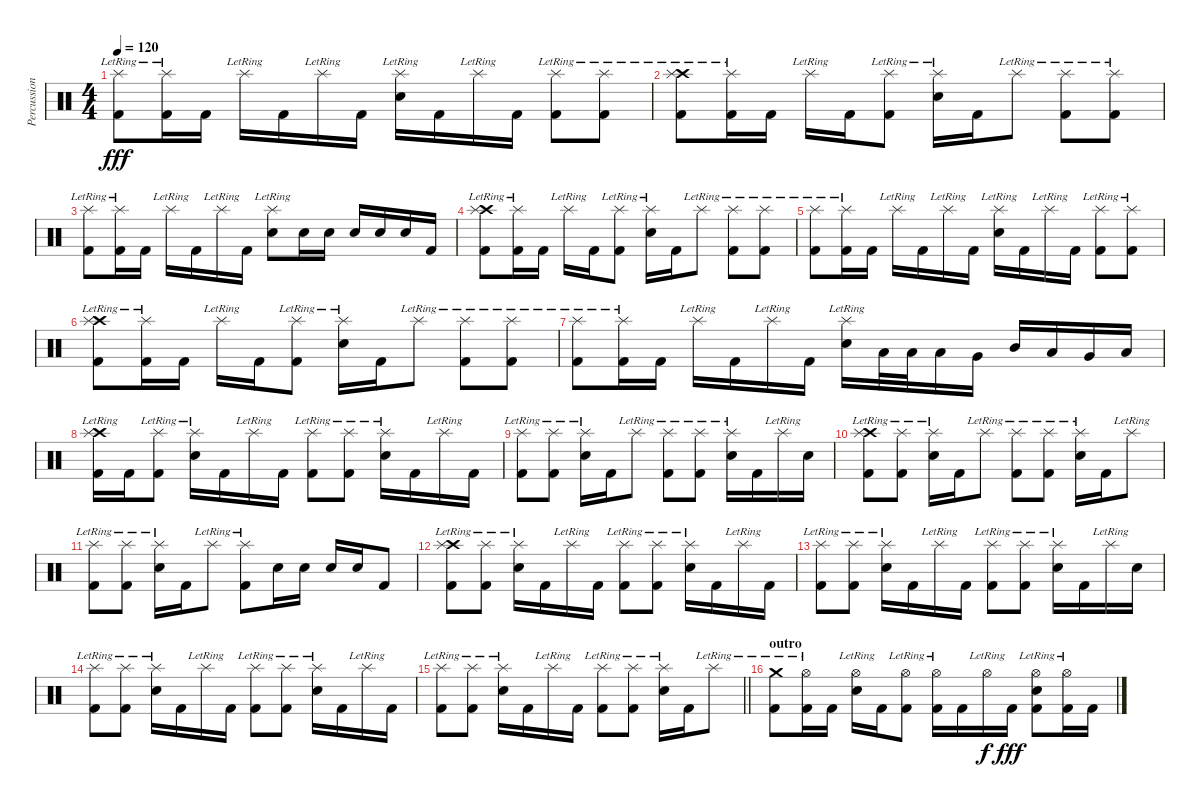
\track ("Percussions" "Percussion") {instrument percussion}
\staff {score}
\articulation defaults
\ts (4 4)
\tempo 120
\clef neutral
\ks c
("Splash (hit)"{lr} "Kick (hit) 2").8{dy fff} ("Splash (hit)"{lr} "Kick (hit) 2").16 "Kick (hit) 2".16 "Splash (hit)"{lr}.16 "Kick (hit) 2".16 "Splash (hit)"{lr}.16 "Kick (hit) 2".16 ("Splash (hit)"{lr} "Electric Snare (hit)").16 "Kick (hit) 2".16 "Splash (hit)"{lr}.16 "Kick (hit) 2".16 ("Splash (hit)"{lr} "Kick (hit) 2").8 ("Splash (hit)"{lr} "Kick (hit) 2").8 |
("Crash high (hit)"{lr} "Splash (hit)"{lr} "Kick (hit) 2").8 ("Splash (hit)"{lr} "Kick (hit) 2").16 "Kick (hit) 2".16 "Splash (hit)"{lr}.16 "Kick (hit) 2".16 ("Splash (hit)"{lr} "Kick (hit) 2").8 ("Splash (hit)"{lr} "Electric Snare (hit)").16 "Kick (hit) 2".16 "Splash (hit)"{lr}.8 ("Splash (hit)"{lr} "Kick (hit) 2").8 ("Splash (hit)"{lr} "Kick (hit) 2").8 |
("Splash (hit)"{lr} "Kick (hit) 2").8 ("Splash (hit)"{lr} "Kick (hit) 2").16 "Kick (hit) 2".16 "Splash (hit)"{lr}.16 "Kick (hit) 2".16 "Splash (hit)"{lr}.16 "Kick (hit) 2".16 ("Splash (hit)"{lr} "Electric Snare (hit)").8 "Electric Snare (hit)".16 "Electric Snare (hit)".16 "Electric Snare (hit)".16 "Electric Snare (hit)".16 "Electric Snare (hit)".16 "Kick (hit) 2".16 |
("Crash high (hit)"{lr} "Splash (hit)"{lr} "Kick (hit) 2").8 ("Splash (hit)"{lr} "Kick (hit) 2").16 "Kick (hit) 2".16 "Splash (hit)"{lr}.16 "Kick (hit) 2".16 ("Splash (hit)"{lr} "Kick (hit) 2").8 ("Splash (hit)"{lr} "Electric Snare (hit)").16 "Kick (hit) 2".16 "Splash (hit)"{lr}.8 ("Splash (hit)"{lr} "Kick (hit) 2").8 ("Splash (hit)"{lr} "Kick (hit) 2").8 |
("Splash (hit)"{lr} "Kick (hit) 2").8 ("Splash (hit)"{lr} "Kick (hit) 2").16 "Kick (hit) 2".16 "Splash (hit)"{lr}.16 "Kick (hit) 2".16 "Splash (hit)"{lr}.16 "Kick (hit) 2".16 ("Splash (hit)"{lr} "Electric Snare (hit)").16 "Kick (hit) 2".16 "Splash (hit)"{lr}.16 "Kick (hit) 2".16 ("Splash (hit)"{lr} "Kick (hit) 2").8 ("Splash (hit)"{lr} "Kick (hit) 2").8 |
("Crash high (hit)"{lr} "Splash (hit)"{lr} "Kick (hit) 2").8 ("Splash (hit)"{lr} "Kick (hit) 2").16 "Kick (hit) 2".16 "Splash (hit)"{lr}.16 "Kick (hit) 2".16 ("Splash (hit)"{lr} "Kick (hit) 2").8 ("Splash (hit)"{lr} "Electric Snare (hit)").16 "Kick (hit) 2".16 "Splash (hit)"{lr}.8 ("Splash (hit)"{lr} "Kick (hit) 2").8 ("Splash (hit)"{lr} "Kick (hit) 2").8 |
("Splash (hit)"{lr} "Kick (hit) 2").8 ("Splash (hit)"{lr} "Kick (hit) 2").16 "Kick (hit) 2".16 "Splash (hit)"{lr}.16 "Kick (hit) 2".16 "Splash (hit)"{lr}.16 "Kick (hit) 2".16 ("Splash (hit)"{lr} "Electric Snare (hit)").16 "Low Tom (hit)".32 "Low Tom (hit)".32 "Low Tom (hit)".16 "Very Low Tom (hit)".16 "Mid Tom (hit)".16 "Low Tom (hit)".16 "Very Low Tom (hit)".16 "Low Floor Tom (hit)".16 |
("Crash high (hit)"{lr} "Splash (hit)"{lr} "Kick (hit) 2").16 "Kick (hit) 2".16 ("Splash (hit)"{lr} "Kick (hit) 2").8 ("Splash (hit)"{lr} "Electric Snare (hit)").16 "Kick (hit) 2".16 "Splash (hit)"{lr}.16 "Kick (hit) 2".16 ("Splash (hit)"{lr} "Kick (hit) 2").8 ("Splash (hit)"{lr} "Kick (hit) 2").8 ("Splash (hit)"{lr} "Electric Snare (hit)").16 "Kick (hit) 2".16 "Splash (hit)"{lr}.16 "Kick (hit) 2".16 |
("Splash (hit)"{lr} "Kick (hit) 2").8 ("Splash (hit)"{lr} "Kick (hit) 2").8 ("Splash (hit)"{lr} "Electric Snare (hit)").16 "Kick (hit) 2".16 "Splash (hit)"{lr}.8 ("Splash (hit)"{lr} "Kick (hit) 2").8 ("Splash (hit)"{lr} "Kick (hit) 2").8 ("Splash (hit)"{lr} "Electric Snare (hit)").16 "Kick (hit) 2".16 "Splash (hit)"{lr}.16 "Electric Snare (hit)".16 |
("Crash high (hit)"{lr} "Splash (hit)"{lr} "Kick (hit) 2").8 ("Splash (hit)"{lr} "Kick (hit) 2").8 ("Splash (hit)"{lr} "Electric Snare (hit)").16 "Kick (hit) 2".16 "Splash (hit)"{lr}.8 ("Splash (hit)"{lr} "Kick (hit) 2").8 ("Splash (hit)"{lr} "Kick (hit) 2").8 ("Splash (hit)"{lr} "Electric Snare (hit)").16 "Kick (hit) 2".16 "Splash (hit)"{lr}.8 |
("Splash (hit)"{lr} "Kick (hit) 2").8 ("Splash (hit)"{lr} "Kick (hit) 2").8 ("Splash (hit)"{lr} "Electric Snare (hit)").16 "Kick (hit) 2".16 "Splash (hit)"{lr}.8 ("Splash (hit)"{lr} "Kick (hit) 2").8 "Electric Snare (hit)".16 "Electric Snare (hit)".16 "Electric Snare (hit)".16 "Electric Snare (hit)".16 "Kick (hit) 2".8 |
("Crash high (hit)"{lr} "Splash (hit)"{lr} "Kick (hit) 2").8 ("Splash (hit)"{lr} "Kick (hit) 2").8 ("Splash (hit)"{lr} "Electric Snare (hit)").16 "Kick (hit) 2".16 "Splash (hit)"{lr}.16 "Kick (hit) 2".16 ("Splash (hit)"{lr} "Kick (hit) 2").8 ("Splash (hit)"{lr} "Kick (hit) 2").8 ("Splash (hit)"{lr} "Electric Snare (hit)").16 "Kick (hit) 2".16 "Splash (hit)"{lr}.16 "Kick (hit) 2".16 |
("Splash (hit)"{lr} "Kick (hit) 2").8 ("Splash (hit)"{lr} "Kick (hit) 2").8 ("Splash (hit)"{lr} "Electric Snare (hit)").16 "Kick (hit) 2".16 "Splash (hit)"{lr}.16 "Kick (hit) 2".16 ("Splash (hit)"{lr} "Kick (hit) 2").8 ("Splash (hit)"{lr} "Kick (hit) 2").8 ("Splash (hit)"{lr} "Electric Snare (hit)").16 "Kick (hit) 2".16 "Splash (hit)"{lr}.16 "Electric Snare (hit)".16 |
("Splash (hit)"{lr} "Kick (hit) 2").8 ("Splash (hit)"{lr} "Kick (hit) 2").8 ("Splash (hit)"{lr} "Electric Snare (hit)").16 "Kick (hit) 2".16 "Splash (hit)"{lr}.16 "Kick (hit) 2".16 ("Splash (hit)"{lr} "Kick (hit) 2").8 ("Splash (hit)"{lr} "Kick (hit) 2").8 ("Splash (hit)"{lr} "Electric Snare (hit)").16 "Kick (hit) 2".16 "Splash (hit)"{lr}.16 "Kick (hit) 2".16 |
\barLineRight lightlight
("Splash (hit)"{lr} "Kick (hit) 2").8 ("Splash (hit)"{lr} "Kick (hit) 2").8 ("Splash (hit)"{lr} "Electric Snare (hit)").16 "Kick (hit) 2".16 "Splash (hit)"{lr}.16 "Kick (hit) 2".16 ("Splash (hit)"{lr} "Kick (hit) 2").8 ("Splash (hit)"{lr} "Kick (hit) 2").8 ("Splash (hit)"{lr} "Electric Snare (hit)").16 "Kick (hit) 2".16 "Splash (hit)"{lr}.8 |
\section ("" "outro")
("Crash medium (hit)"{lr} "Kick (hit) 2").8 ("Hi-Hat (open)"{lr} "Kick (hit) 2").16 "Kick (hit) 2".16 ("Hi-Hat (open)"{lr} "Electric Snare (hit)").16 "Kick (hit) 2".16 ("Hi-Hat (open)"{lr} "Kick (hit) 2").8 ("Hi-Hat (open)"{lr} "Kick (hit) 2").16 "Kick (hit) 2".16 "Hi-Hat (open)"{lr}.16{dy f} "Kick (hit) 2".16{dy fff} ("Hi-Hat (open)"{lr} "Electric Snare (hit)" "Kick (hit) 2").8 ("Hi-Hat (open)"{lr} "Kick (hit) 2").16 "Kick (hit) 2".16
